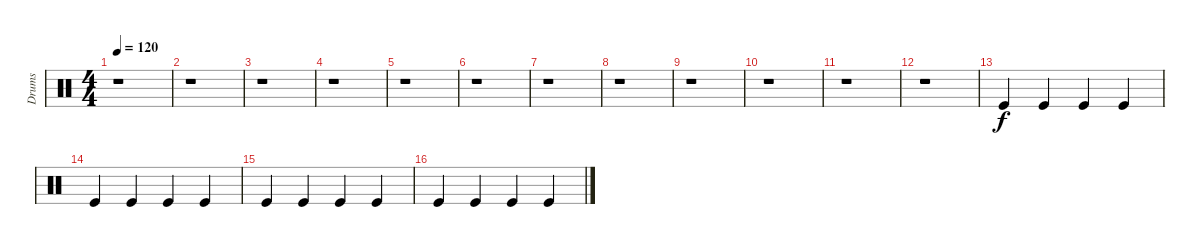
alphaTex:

\track ("Drums" "Drums") {instrument percussion}
\staff {score}
\articulation defaults
\ts (4 4)
\tempo 120
\clef neutral
\ks c
r.1{dy f} |
r.1 |
r.1 |
r.1 |
r.1 |
r.1 |
r.1 |
r.1 |
r.1 |
r.1 |
r.1 |
r.1 |
"Kick (hit)".4 "Kick (hit)".4 "Kick (hit)".4 "Kick (hit)".4 |
"Kick (hit)".4 "Kick (hit)".4 "Kick (hit)".4 "Kick (hit)".4 |
"Kick (hit)".4 "Kick (hit)".4 "Kick (hit)".4 "Kick (hit)".4 |
"Kick (hit)".4 "Kick (hit)".4 "Kick (hit)".4 "Kick (hit)".4
